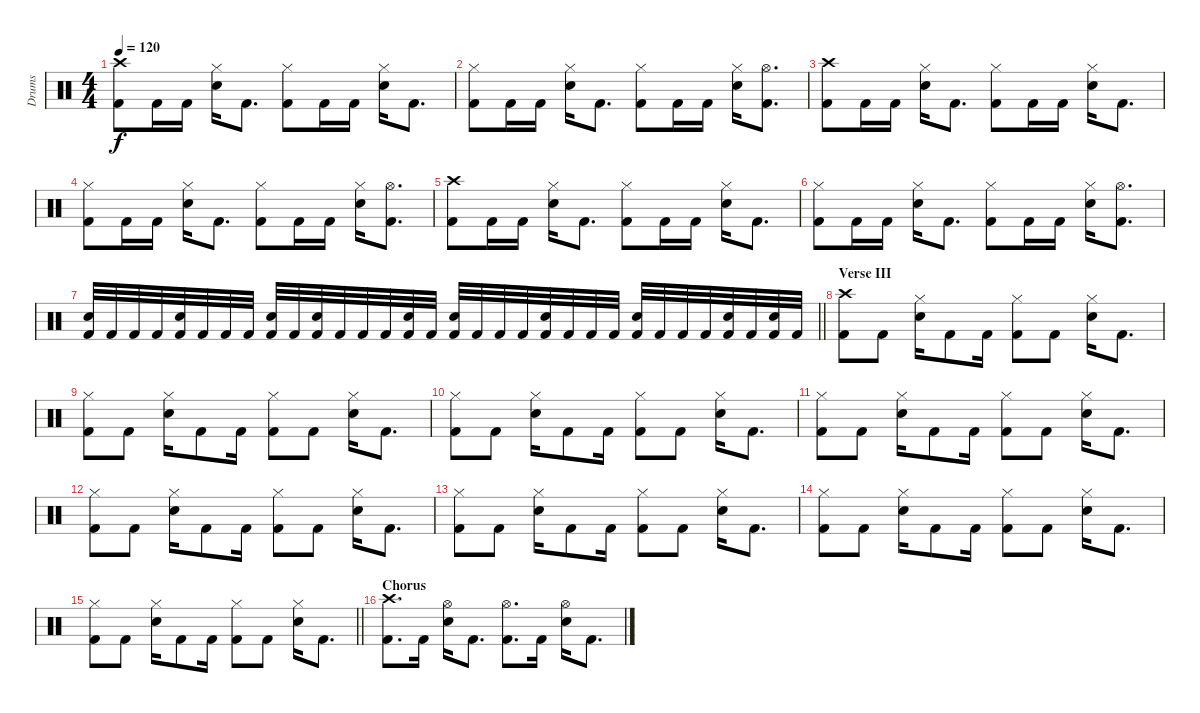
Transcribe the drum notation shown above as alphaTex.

\track ("Drums" "Drums") {instrument percussion}
\staff {score}
\articulation defaults
\ts (4 4)
\tempo 120
\clef neutral
\ks c
("Crash high (hit)" "Kick (hit) 2").8{dy f} "Kick (hit) 2".16 "Kick (hit) 2".16 ("Hi-Hat (closed)" "Snare (hit) 2").16 "Kick (hit) 2".8{d} ("Hi-Hat (closed)" "Kick (hit) 2").8 "Kick (hit) 2".16 "Kick (hit) 2".16 ("Hi-Hat (closed)" "Snare (hit) 2").16 "Kick (hit) 2".8{d} |
("Hi-Hat (closed)" "Kick (hit) 2").8 "Kick (hit) 2".16 "Kick (hit) 2".16 ("Hi-Hat (closed)" "Snare (hit) 2").16 "Kick (hit) 2".8{d} ("Hi-Hat (closed)" "Kick (hit) 2").8 "Kick (hit) 2".16 "Kick (hit) 2".16 ("Hi-Hat (closed)" "Snare (hit) 2").16 ("Hi-Hat (open)" "Kick (hit) 2").8{d} |
("Crash high (hit)" "Kick (hit) 2").8 "Kick (hit) 2".16 "Kick (hit) 2".16 ("Hi-Hat (closed)" "Snare (hit) 2").16 "Kick (hit) 2".8{d} ("Hi-Hat (closed)" "Kick (hit) 2").8 "Kick (hit) 2".16 "Kick (hit) 2".16 ("Hi-Hat (closed)" "Snare (hit) 2").16 "Kick (hit) 2".8{d} |
("Hi-Hat (closed)" "Kick (hit) 2").8 "Kick (hit) 2".16 "Kick (hit) 2".16 ("Hi-Hat (closed)" "Snare (hit) 2").16 "Kick (hit) 2".8{d} ("Hi-Hat (closed)" "Kick (hit) 2").8 "Kick (hit) 2".16 "Kick (hit) 2".16 ("Hi-Hat (closed)" "Snare (hit) 2").16 ("Hi-Hat (open)" "Kick (hit) 2").8{d} |
("Crash high (hit)" "Kick (hit) 2").8 "Kick (hit) 2".16 "Kick (hit) 2".16 ("Hi-Hat (closed)" "Snare (hit) 2").16 "Kick (hit) 2".8{d} ("Hi-Hat (closed)" "Kick (hit) 2").8 "Kick (hit) 2".16 "Kick (hit) 2".16 ("Hi-Hat (closed)" "Snare (hit) 2").16 "Kick (hit) 2".8{d} |
("Hi-Hat (closed)" "Kick (hit) 2").8 "Kick (hit) 2".16 "Kick (hit) 2".16 ("Hi-Hat (closed)" "Snare (hit) 2").16 "Kick (hit) 2".8{d} ("Hi-Hat (closed)" "Kick (hit) 2").8 "Kick (hit) 2".16 "Kick (hit) 2".16 ("Hi-Hat (closed)" "Snare (hit) 2").16 ("Hi-Hat (open)" "Kick (hit) 2").8{d} |
\barLineRight lightlight
("Snare (hit) 2" "Kick (hit) 2").32 "Kick (hit) 2".32 "Kick (hit) 2".32 "Kick (hit) 2".32 ("Snare (hit) 2" "Kick (hit) 2").32 "Kick (hit) 2".32 "Kick (hit) 2".32 "Kick (hit) 2".32 ("Snare (hit) 2" "Kick (hit) 2").32 "Kick (hit) 2".32 ("Snare (hit) 2" "Kick (hit) 2").32 "Kick (hit) 2".32 "Kick (hit) 2".32 "Kick (hit) 2".32 ("Snare (hit) 2" "Kick (hit) 2").32 "Kick (hit) 2".32 ("Snare (hit) 2" "Kick (hit) 2").32 "Kick (hit) 2".32 "Kick (hit) 2".32 "Kick (hit) 2".32 ("Snare (hit) 2" "Kick (hit) 2").32 "Kick (hit) 2".32 "Kick (hit) 2".32 "Kick (hit) 2".32 ("Snare (hit) 2" "Kick (hit) 2").32 "Kick (hit) 2".32 "Kick (hit) 2".32 "Kick (hit) 2".32 ("Snare (hit) 2" "Kick (hit) 2").32 "Kick (hit) 2".32 ("Snare (hit) 2" "Kick (hit) 2").32 "Kick (hit) 2".32 |
\section ("" "Verse III")
("Crash high (hit)" "Kick (hit) 2").8 "Kick (hit) 2".8 ("Hi-Hat (closed)" "Snare (hit) 2").16 "Kick (hit) 2".8 "Kick (hit) 2".16 ("Hi-Hat (closed)" "Kick (hit) 2").8 "Kick (hit) 2".8 ("Hi-Hat (closed)" "Snare (hit) 2").16 "Kick (hit) 2".8{d} |
("Hi-Hat (closed)" "Kick (hit) 2").8 "Kick (hit) 2".8 ("Hi-Hat (closed)" "Snare (hit) 2").16 "Kick (hit) 2".8 "Kick (hit) 2".16 ("Hi-Hat (closed)" "Kick (hit) 2").8 "Kick (hit) 2".8 ("Hi-Hat (closed)" "Snare (hit) 2").16 "Kick (hit) 2".8{d} |
("Hi-Hat (closed)" "Kick (hit) 2").8 "Kick (hit) 2".8 ("Hi-Hat (closed)" "Snare (hit) 2").16 "Kick (hit) 2".8 "Kick (hit) 2".16 ("Hi-Hat (closed)" "Kick (hit) 2").8 "Kick (hit) 2".8 ("Hi-Hat (closed)" "Snare (hit) 2").16 "Kick (hit) 2".8{d} |
("Hi-Hat (closed)" "Kick (hit) 2").8 "Kick (hit) 2".8 ("Hi-Hat (closed)" "Snare (hit) 2").16 "Kick (hit) 2".8 "Kick (hit) 2".16 ("Hi-Hat (closed)" "Kick (hit) 2").8 "Kick (hit) 2".8 ("Hi-Hat (closed)" "Snare (hit) 2").16 "Kick (hit) 2".8{d} |
("Hi-Hat (closed)" "Kick (hit) 2").8 "Kick (hit) 2".8 ("Hi-Hat (closed)" "Snare (hit) 2").16 "Kick (hit) 2".8 "Kick (hit) 2".16 ("Hi-Hat (closed)" "Kick (hit) 2").8 "Kick (hit) 2".8 ("Hi-Hat (closed)" "Snare (hit) 2").16 "Kick (hit) 2".8{d} |
("Hi-Hat (closed)" "Kick (hit) 2").8 "Kick (hit) 2".8 ("Hi-Hat (closed)" "Snare (hit) 2").16 "Kick (hit) 2".8 "Kick (hit) 2".16 ("Hi-Hat (closed)" "Kick (hit) 2").8 "Kick (hit) 2".8 ("Hi-Hat (closed)" "Snare (hit) 2").16 "Kick (hit) 2".8{d} |
("Hi-Hat (closed)" "Kick (hit) 2").8 "Kick (hit) 2".8 ("Hi-Hat (closed)" "Snare (hit) 2").16 "Kick (hit) 2".8 "Kick (hit) 2".16 ("Hi-Hat (closed)" "Kick (hit) 2").8 "Kick (hit) 2".8 ("Hi-Hat (closed)" "Snare (hit) 2").16 "Kick (hit) 2".8{d} |
\barLineRight lightlight
("Hi-Hat (closed)" "Kick (hit) 2").8 "Kick (hit) 2".8 ("Hi-Hat (closed)" "Snare (hit) 2").16 "Kick (hit) 2".8 "Kick (hit) 2".16 ("Hi-Hat (closed)" "Kick (hit) 2").8 "Kick (hit) 2".8 ("Hi-Hat (closed)" "Snare (hit) 2").16 "Kick (hit) 2".8{d} |
\section ("" "Chorus")
("Crash high (hit)" "Kick (hit) 2").8{d} "Kick (hit) 2".16 ("Hi-Hat (open)" "Electric Snare (hit)").16 "Kick (hit) 2".8{d} ("Hi-Hat (open)" "Kick (hit) 2").8{d} "Kick (hit) 2".16 ("Hi-Hat (open)" "Electric Snare (hit)").16 "Kick (hit) 2".8{d}
